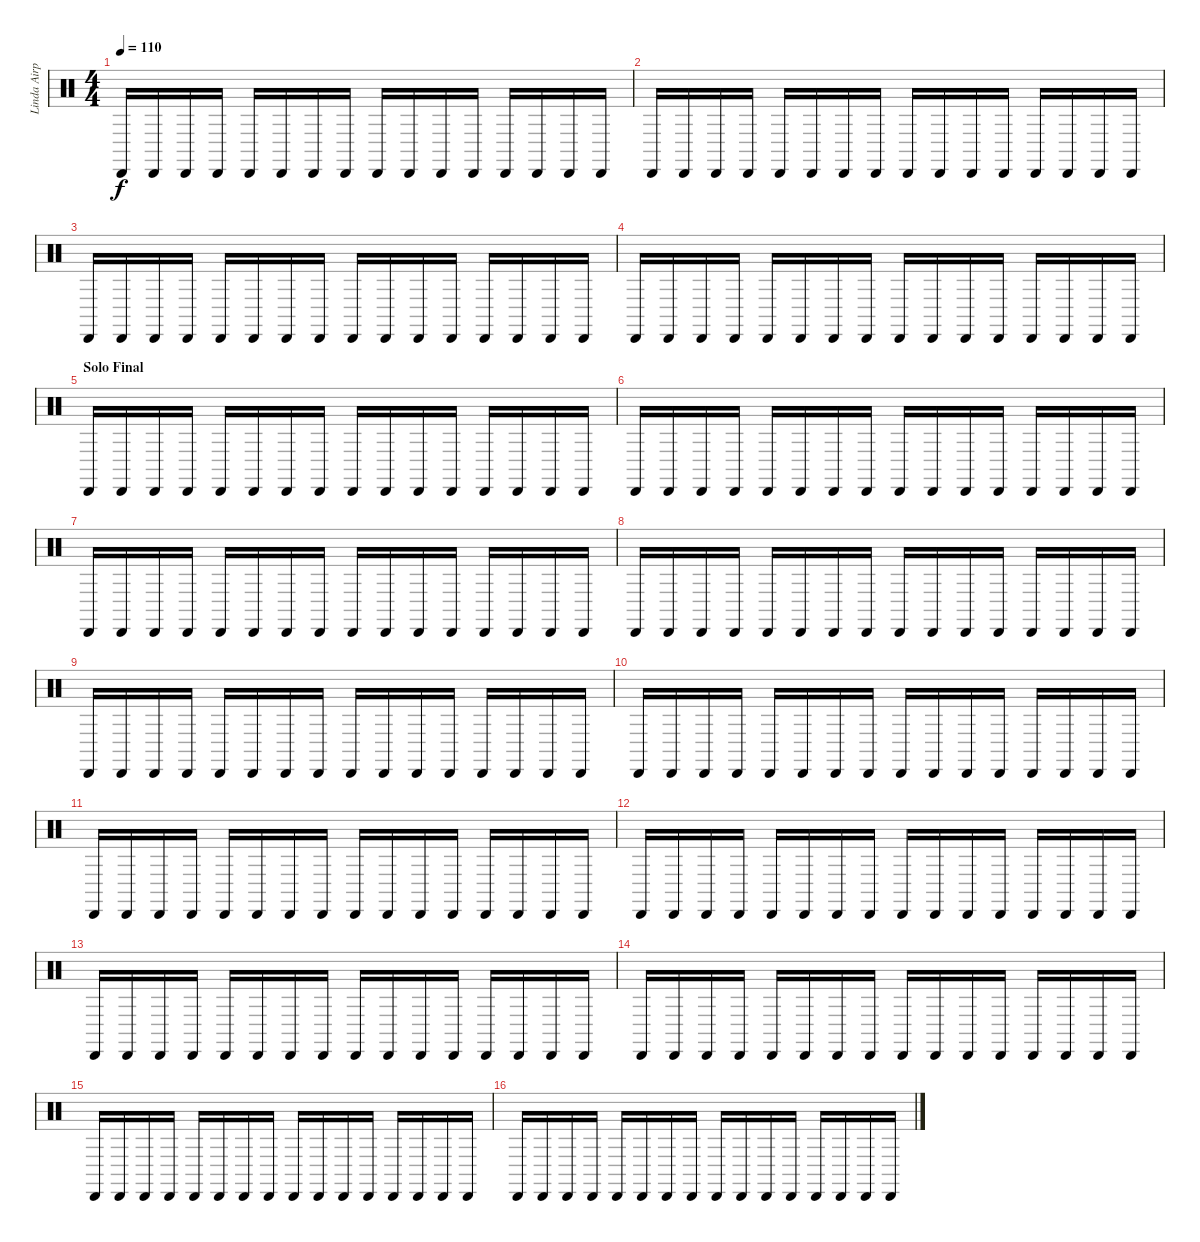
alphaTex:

\track ("Linda Airplane" "Linda Airp") {instrument percussion}
\staff {score}
\articulation defaults
\ts (4 4)
\tempo 110
\clef neutral
\ks c "Cabasa (hit)".16{dy f} "Cabasa (hit)".16 "Cabasa (hit)".16 "Cabasa (hit)".16 "Cabasa (hit)".16 "Cabasa (hit)".16 "Cabasa (hit)".16 "Cabasa (hit)".16 "Cabasa (hit)".16 "Cabasa (hit)".16 "Cabasa (hit)".16 "Cabasa (hit)".16 "Cabasa (hit)".16 "Cabasa (hit)".16 "Cabasa (hit)".16 "Cabasa (hit)".16
|
"Cabasa (hit)".16 "Cabasa (hit)".16 "Cabasa (hit)".16 "Cabasa (hit)".16 "Cabasa (hit)".16 "Cabasa (hit)".16 "Cabasa (hit)".16 "Cabasa (hit)".16 "Cabasa (hit)".16 "Cabasa (hit)".16 "Cabasa (hit)".16 "Cabasa (hit)".16 "Cabasa (hit)".16 "Cabasa (hit)".16 "Cabasa (hit)".16 "Cabasa (hit)".16 |
"Cabasa (hit)".16 "Cabasa (hit)".16 "Cabasa (hit)".16 "Cabasa (hit)".16 "Cabasa (hit)".16 "Cabasa (hit)".16 "Cabasa (hit)".16 "Cabasa (hit)".16 "Cabasa (hit)".16 "Cabasa (hit)".16 "Cabasa (hit)".16 "Cabasa (hit)".16 "Cabasa (hit)".16 "Cabasa (hit)".16 "Cabasa (hit)".16 "Cabasa (hit)".16 |
"Cabasa (hit)".16 "Cabasa (hit)".16 "Cabasa (hit)".16 "Cabasa (hit)".16 "Cabasa (hit)".16 "Cabasa (hit)".16 "Cabasa (hit)".16 "Cabasa (hit)".16 "Cabasa (hit)".16 "Cabasa (hit)".16 "Cabasa (hit)".16 "Cabasa (hit)".16 "Cabasa (hit)".16 "Cabasa (hit)".16 "Cabasa (hit)".16 "Cabasa (hit)".16 |
\section ("" "Solo Final")
"Cabasa (hit)".16 "Cabasa (hit)".16 "Cabasa (hit)".16 "Cabasa (hit)".16 "Cabasa (hit)".16 "Cabasa (hit)".16 "Cabasa (hit)".16 "Cabasa (hit)".16 "Cabasa (hit)".16 "Cabasa (hit)".16 "Cabasa (hit)".16 "Cabasa (hit)".16 "Cabasa (hit)".16 "Cabasa (hit)".16 "Cabasa (hit)".16 "Cabasa (hit)".16 |
"Cabasa (hit)".16 "Cabasa (hit)".16 "Cabasa (hit)".16 "Cabasa (hit)".16 "Cabasa (hit)".16 "Cabasa (hit)".16 "Cabasa (hit)".16 "Cabasa (hit)".16 "Cabasa (hit)".16 "Cabasa (hit)".16 "Cabasa (hit)".16 "Cabasa (hit)".16 "Cabasa (hit)".16 "Cabasa (hit)".16 "Cabasa (hit)".16 "Cabasa (hit)".16 |
"Cabasa (hit)".16 "Cabasa (hit)".16 "Cabasa (hit)".16 "Cabasa (hit)".16 "Cabasa (hit)".16 "Cabasa (hit)".16 "Cabasa (hit)".16 "Cabasa (hit)".16 "Cabasa (hit)".16 "Cabasa (hit)".16 "Cabasa (hit)".16 "Cabasa (hit)".16 "Cabasa (hit)".16 "Cabasa (hit)".16 "Cabasa (hit)".16 "Cabasa (hit)".16 |
"Cabasa (hit)".16 "Cabasa (hit)".16 "Cabasa (hit)".16 "Cabasa (hit)".16 "Cabasa (hit)".16 "Cabasa (hit)".16 "Cabasa (hit)".16 "Cabasa (hit)".16 "Cabasa (hit)".16 "Cabasa (hit)".16 "Cabasa (hit)".16 "Cabasa (hit)".16 "Cabasa (hit)".16 "Cabasa (hit)".16 "Cabasa (hit)".16 "Cabasa (hit)".16 |
"Cabasa (hit)".16 "Cabasa (hit)".16 "Cabasa (hit)".16 "Cabasa (hit)".16 "Cabasa (hit)".16 "Cabasa (hit)".16 "Cabasa (hit)".16 "Cabasa (hit)".16 "Cabasa (hit)".16 "Cabasa (hit)".16 "Cabasa (hit)".16 "Cabasa (hit)".16 "Cabasa (hit)".16 "Cabasa (hit)".16 "Cabasa (hit)".16 "Cabasa (hit)".16 |
"Cabasa (hit)".16 "Cabasa (hit)".16 "Cabasa (hit)".16 "Cabasa (hit)".16 "Cabasa (hit)".16 "Cabasa (hit)".16 "Cabasa (hit)".16 "Cabasa (hit)".16 "Cabasa (hit)".16 "Cabasa (hit)".16 "Cabasa (hit)".16 "Cabasa (hit)".16 "Cabasa (hit)".16 "Cabasa (hit)".16 "Cabasa (hit)".16 "Cabasa (hit)".16 |
"Cabasa (hit)".16 "Cabasa (hit)".16 "Cabasa (hit)".16 "Cabasa (hit)".16 "Cabasa (hit)".16 "Cabasa (hit)".16 "Cabasa (hit)".16 "Cabasa (hit)".16 "Cabasa (hit)".16 "Cabasa (hit)".16 "Cabasa (hit)".16 "Cabasa (hit)".16 "Cabasa (hit)".16 "Cabasa (hit)".16 "Cabasa (hit)".16 "Cabasa (hit)".16 |
"Cabasa (hit)".16 "Cabasa (hit)".16 "Cabasa (hit)".16 "Cabasa (hit)".16 "Cabasa (hit)".16 "Cabasa (hit)".16 "Cabasa (hit)".16 "Cabasa (hit)".16 "Cabasa (hit)".16 "Cabasa (hit)".16 "Cabasa (hit)".16 "Cabasa (hit)".16 "Cabasa (hit)".16 "Cabasa (hit)".16 "Cabasa (hit)".16 "Cabasa (hit)".16 |
"Cabasa (hit)".16 "Cabasa (hit)".16 "Cabasa (hit)".16 "Cabasa (hit)".16 "Cabasa (hit)".16 "Cabasa (hit)".16 "Cabasa (hit)".16 "Cabasa (hit)".16 "Cabasa (hit)".16 "Cabasa (hit)".16 "Cabasa (hit)".16 "Cabasa (hit)".16 "Cabasa (hit)".16 "Cabasa (hit)".16 "Cabasa (hit)".16 "Cabasa (hit)".16 |
"Cabasa (hit)".16 "Cabasa (hit)".16 "Cabasa (hit)".16 "Cabasa (hit)".16 "Cabasa (hit)".16 "Cabasa (hit)".16 "Cabasa (hit)".16 "Cabasa (hit)".16 "Cabasa (hit)".16 "Cabasa (hit)".16 "Cabasa (hit)".16 "Cabasa (hit)".16 "Cabasa (hit)".16 "Cabasa (hit)".16 "Cabasa (hit)".16 "Cabasa (hit)".16 |
"Cabasa (hit)".16 "Cabasa (hit)".16 "Cabasa (hit)".16 "Cabasa (hit)".16 "Cabasa (hit)".16 "Cabasa (hit)".16 "Cabasa (hit)".16 "Cabasa (hit)".16 "Cabasa (hit)".16 "Cabasa (hit)".16 "Cabasa (hit)".16 "Cabasa (hit)".16 "Cabasa (hit)".16 "Cabasa (hit)".16 "Cabasa (hit)".16 "Cabasa (hit)".16 |
"Cabasa (hit)".16 "Cabasa (hit)".16 "Cabasa (hit)".16 "Cabasa (hit)".16 "Cabasa (hit)".16 "Cabasa (hit)".16 "Cabasa (hit)".16 "Cabasa (hit)".16 "Cabasa (hit)".16 "Cabasa (hit)".16 "Cabasa (hit)".16 "Cabasa (hit)".16 "Cabasa (hit)".16 "Cabasa (hit)".16 "Cabasa (hit)".16 "Cabasa (hit)".16
